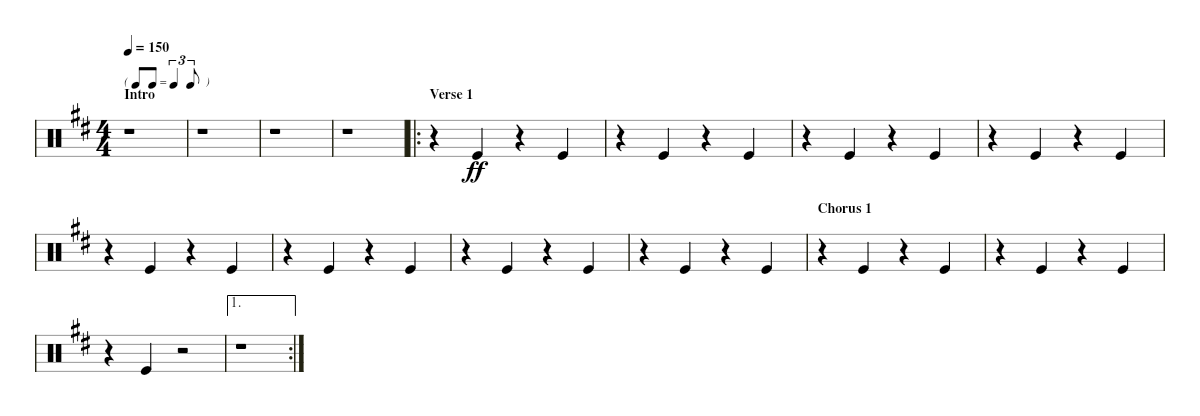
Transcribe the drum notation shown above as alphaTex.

\bracketExtendMode nobrackets
\singleTrackTrackNamePolicy hidden
\multiTrackTrackNamePolicy hidden
\firstSystemTrackNameMode fullname
\firstSystemTrackNameOrientation horizontal
\otherSystemsTrackNameOrientation horizontal
\defaultBarNumberDisplay Hide
\track ("Hand Clap" "H-Clap") {instrument percussion}
\staff {score}
\articulation defaults
\ts (4 4)
\tf triplet8th
\section ("" "Intro")
\tempo 150
\clef neutral
\scale
1.19485
\ks d
r.1{dy ff} |
\scale
0.935049 r.1 |
\scale
0.935049 r.1 |
\scale
0.935049 r.1 |
\ro
\section ("" "Verse 1")
r.4 "Kick (hit)".4 r.4 "Kick (hit)".4 |
r.4 "Kick (hit)".4 r.4 "Kick (hit)".4 |
r.4 "Kick (hit)".4 r.4 "Kick (hit)".4 |
r.4 "Kick (hit)".4 r.4 "Kick (hit)".4 |
r.4 "Kick (hit)".4 r.4 "Kick (hit)".4 |
r.4 "Kick (hit)".4 r.4 "Kick (hit)".4 |
\scale
0.5 r.4 "Kick (hit)".4 r.4 "Kick (hit)".4 |
\scale
0.5 r.4 "Kick (hit)".4 r.4 "Kick (hit)".4 |
\section ("" "Chorus 1")
\scale
0.5 r.4 "Kick (hit)".4 r.4 "Kick (hit)".4 |
\scale
0.5 r.4 "Kick (hit)".4 r.4 "Kick (hit)".4 |
r.4 "Kick (hit)".4 r.2 |
\ae 1
\rc 2
r.1
